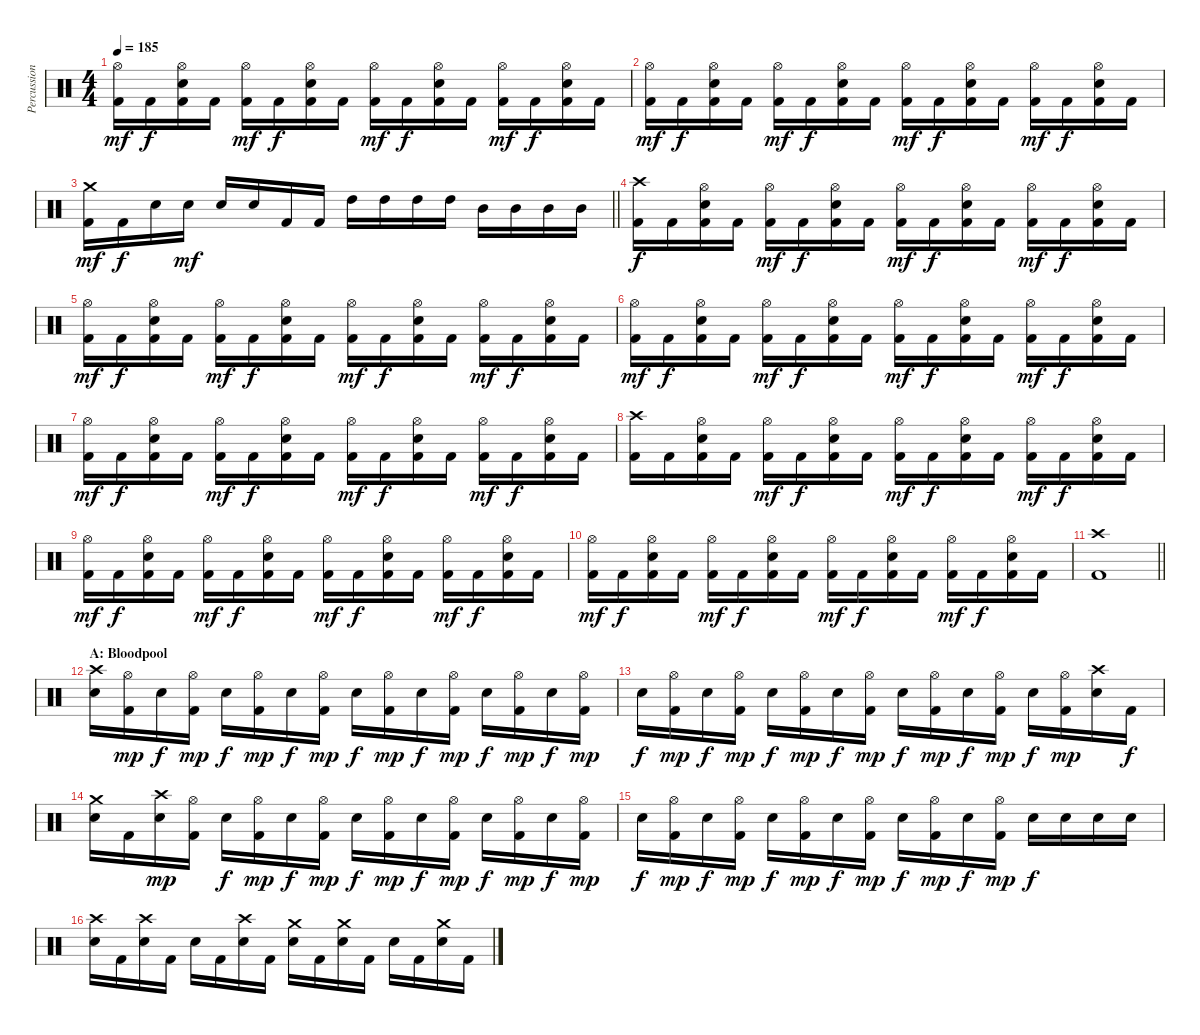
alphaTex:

\track ("Percussion" "Percussion") {instrument percussion}
\staff {score}
\articulation defaults
\ts (4 4)
\tempo 185
\clef neutral
\ks c
("Hi-Hat (open)" "Kick (hit) 2").16{dy mf} "Kick (hit) 2".16{dy f} ("Hi-Hat (open)" "Snare (hit) 2" "Kick (hit) 2").16 "Kick (hit) 2".16 ("Hi-Hat (open)" "Kick (hit) 2").16{dy mf} "Kick (hit) 2".16{dy f} ("Hi-Hat (open)" "Snare (hit) 2" "Kick (hit) 2").16 "Kick (hit) 2".16 ("Hi-Hat (open)" "Kick (hit) 2").16{dy mf} "Kick (hit) 2".16{dy f} ("Hi-Hat (open)" "Snare (hit) 2" "Kick (hit) 2").16 "Kick (hit) 2".16 ("Hi-Hat (open)" "Kick (hit) 2").16{dy mf} "Kick (hit) 2".16{dy f} ("Hi-Hat (open)" "Snare (hit) 2" "Kick (hit) 2").16 "Kick (hit) 2".16 |
("Hi-Hat (open)" "Kick (hit) 2").16{dy mf} "Kick (hit) 2".16{dy f} ("Hi-Hat (open)" "Snare (hit) 2" "Kick (hit) 2").16 "Kick (hit) 2".16 ("Hi-Hat (open)" "Kick (hit) 2").16{dy mf} "Kick (hit) 2".16{dy f} ("Hi-Hat (open)" "Snare (hit) 2" "Kick (hit) 2").16 "Kick (hit) 2".16 ("Hi-Hat (open)" "Kick (hit) 2").16{dy mf} "Kick (hit) 2".16{dy f} ("Hi-Hat (open)" "Snare (hit) 2" "Kick (hit) 2").16 "Kick (hit) 2".16 ("Hi-Hat (open)" "Kick (hit) 2").16{dy mf} "Kick (hit) 2".16{dy f} ("Hi-Hat (open)" "Snare (hit) 2" "Kick (hit) 2").16 "Kick (hit) 2".16 |
\barLineRight lightlight
("Crash medium (hit)" "Kick (hit) 2").16{dy mf} "Kick (hit) 2".16{dy f} "Snare (hit) 2".16 "Snare (hit) 2".16{dy mf} "Snare (hit) 2".16 "Snare (hit) 2".16 "Kick (hit) 2".16 "Kick (hit) 2".16 "High Tom (hit)".16 "High Tom (hit)".16 "High Tom (hit)".16 "High Tom (hit)".16 "Mid Tom (hit)".16 "Mid Tom (hit)".16 "Mid Tom (hit)".16 "Mid Tom (hit)".16 |
\section ("" " ")
("Crash high (hit)" "Kick (hit) 2").16{dy f} "Kick (hit) 2".16 ("Hi-Hat (open)" "Snare (hit) 2" "Kick (hit) 2").16 "Kick (hit) 2".16 ("Hi-Hat (open)" "Kick (hit) 2").16{dy mf} "Kick (hit) 2".16{dy f} ("Hi-Hat (open)" "Snare (hit) 2" "Kick (hit) 2").16 "Kick (hit) 2".16 ("Hi-Hat (open)" "Kick (hit) 2").16{dy mf} "Kick (hit) 2".16{dy f} ("Hi-Hat (open)" "Snare (hit) 2" "Kick (hit) 2").16 "Kick (hit) 2".16 ("Hi-Hat (open)" "Kick (hit) 2").16{dy mf} "Kick (hit) 2".16{dy f} ("Hi-Hat (open)" "Snare (hit) 2" "Kick (hit) 2").16 "Kick (hit) 2".16 |
("Hi-Hat (open)" "Kick (hit) 2").16{dy mf} "Kick (hit) 2".16{dy f} ("Hi-Hat (open)" "Snare (hit) 2" "Kick (hit) 2").16 "Kick (hit) 2".16 ("Hi-Hat (open)" "Kick (hit) 2").16{dy mf} "Kick (hit) 2".16{dy f} ("Hi-Hat (open)" "Snare (hit) 2" "Kick (hit) 2").16 "Kick (hit) 2".16 ("Hi-Hat (open)" "Kick (hit) 2").16{dy mf} "Kick (hit) 2".16{dy f} ("Hi-Hat (open)" "Snare (hit) 2" "Kick (hit) 2").16 "Kick (hit) 2".16 ("Hi-Hat (open)" "Kick (hit) 2").16{dy mf} "Kick (hit) 2".16{dy f} ("Hi-Hat (open)" "Snare (hit) 2" "Kick (hit) 2").16 "Kick (hit) 2".16 |
("Hi-Hat (open)" "Kick (hit) 2").16{dy mf} "Kick (hit) 2".16{dy f} ("Hi-Hat (open)" "Snare (hit) 2" "Kick (hit) 2").16 "Kick (hit) 2".16 ("Hi-Hat (open)" "Kick (hit) 2").16{dy mf} "Kick (hit) 2".16{dy f} ("Hi-Hat (open)" "Snare (hit) 2" "Kick (hit) 2").16 "Kick (hit) 2".16 ("Hi-Hat (open)" "Kick (hit) 2").16{dy mf} "Kick (hit) 2".16{dy f} ("Hi-Hat (open)" "Snare (hit) 2" "Kick (hit) 2").16 "Kick (hit) 2".16 ("Hi-Hat (open)" "Kick (hit) 2").16{dy mf} "Kick (hit) 2".16{dy f} ("Hi-Hat (open)" "Snare (hit) 2" "Kick (hit) 2").16 "Kick (hit) 2".16 |
("Hi-Hat (open)" "Kick (hit) 2").16{dy mf} "Kick (hit) 2".16{dy f} ("Hi-Hat (open)" "Snare (hit) 2" "Kick (hit) 2").16 "Kick (hit) 2".16 ("Hi-Hat (open)" "Kick (hit) 2").16{dy mf} "Kick (hit) 2".16{dy f} ("Hi-Hat (open)" "Snare (hit) 2" "Kick (hit) 2").16 "Kick (hit) 2".16 ("Hi-Hat (open)" "Kick (hit) 2").16{dy mf} "Kick (hit) 2".16{dy f} ("Hi-Hat (open)" "Snare (hit) 2" "Kick (hit) 2").16 "Kick (hit) 2".16 ("Hi-Hat (open)" "Kick (hit) 2").16{dy mf} "Kick (hit) 2".16{dy f} ("Hi-Hat (open)" "Snare (hit) 2" "Kick (hit) 2").16 "Kick (hit) 2".16 |
("Crash high (hit)" "Kick (hit) 2").16 "Kick (hit) 2".16 ("Hi-Hat (open)" "Snare (hit) 2" "Kick (hit) 2").16 "Kick (hit) 2".16 ("Hi-Hat (open)" "Kick (hit) 2").16{dy mf} "Kick (hit) 2".16{dy f} ("Hi-Hat (open)" "Snare (hit) 2" "Kick (hit) 2").16 "Kick (hit) 2".16 ("Hi-Hat (open)" "Kick (hit) 2").16{dy mf} "Kick (hit) 2".16{dy f} ("Hi-Hat (open)" "Snare (hit) 2" "Kick (hit) 2").16 "Kick (hit) 2".16 ("Hi-Hat (open)" "Kick (hit) 2").16{dy mf} "Kick (hit) 2".16{dy f} ("Hi-Hat (open)" "Snare (hit) 2" "Kick (hit) 2").16 "Kick (hit) 2".16 |
("Hi-Hat (open)" "Kick (hit) 2").16{dy mf} "Kick (hit) 2".16{dy f} ("Hi-Hat (open)" "Snare (hit) 2" "Kick (hit) 2").16 "Kick (hit) 2".16 ("Hi-Hat (open)" "Kick (hit) 2").16{dy mf} "Kick (hit) 2".16{dy f} ("Hi-Hat (open)" "Snare (hit) 2" "Kick (hit) 2").16 "Kick (hit) 2".16 ("Hi-Hat (open)" "Kick (hit) 2").16{dy mf} "Kick (hit) 2".16{dy f} ("Hi-Hat (open)" "Snare (hit) 2" "Kick (hit) 2").16 "Kick (hit) 2".16 ("Hi-Hat (open)" "Kick (hit) 2").16{dy mf} "Kick (hit) 2".16{dy f} ("Hi-Hat (open)" "Snare (hit) 2" "Kick (hit) 2").16 "Kick (hit) 2".16 |
("Hi-Hat (open)" "Kick (hit) 2").16{dy mf} "Kick (hit) 2".16{dy f} ("Hi-Hat (open)" "Snare (hit) 2" "Kick (hit) 2").16 "Kick (hit) 2".16 ("Hi-Hat (open)" "Kick (hit) 2").16{dy mf} "Kick (hit) 2".16{dy f} ("Hi-Hat (open)" "Snare (hit) 2" "Kick (hit) 2").16 "Kick (hit) 2".16 ("Hi-Hat (open)" "Kick (hit) 2").16{dy mf} "Kick (hit) 2".16{dy f} ("Hi-Hat (open)" "Snare (hit) 2" "Kick (hit) 2").16 "Kick (hit) 2".16 ("Hi-Hat (open)" "Kick (hit) 2").16{dy mf} "Kick (hit) 2".16{dy f} ("Hi-Hat (open)" "Snare (hit) 2" "Kick (hit) 2").16 "Kick (hit) 2".16 |
\barLineRight lightlight
("Crash high (hit)" "Kick (hit) 2").1 |
\section ("" "A: Bloodpool")
("Crash high (hit)" "Snare (hit) 2").16 ("Hi-Hat (open)" "Kick (hit) 2").16{dy mp} "Snare (hit) 2".16{dy f} ("Hi-Hat (open)" "Kick (hit) 2").16{dy mp} "Snare (hit) 2".16{dy f} ("Hi-Hat (open)" "Kick (hit) 2").16{dy mp} "Snare (hit) 2".16{dy f} ("Hi-Hat (open)" "Kick (hit) 2").16{dy mp} "Snare (hit) 2".16{dy f} ("Hi-Hat (open)" "Kick (hit) 2").16{dy mp} "Snare (hit) 2".16{dy f} ("Hi-Hat (open)" "Kick (hit) 2").16{dy mp} "Snare (hit) 2".16{dy f} ("Hi-Hat (open)" "Kick (hit) 2").16{dy mp} "Snare (hit) 2".16{dy f} ("Hi-Hat (open)" "Kick (hit) 2").16{dy mp} |
"Snare (hit) 2".16{dy f} ("Hi-Hat (open)" "Kick (hit) 2").16{dy mp} "Snare (hit) 2".16{dy f} ("Hi-Hat (open)" "Kick (hit) 2").16{dy mp} "Snare (hit) 2".16{dy f} ("Hi-Hat (open)" "Kick (hit) 2").16{dy mp} "Snare (hit) 2".16{dy f} ("Hi-Hat (open)" "Kick (hit) 2").16{dy mp} "Snare (hit) 2".16{dy f} ("Hi-Hat (open)" "Kick (hit) 2").16{dy mp} "Snare (hit) 2".16{dy f} ("Hi-Hat (open)" "Kick (hit) 2").16{dy mp} "Snare (hit) 2".16{dy f} ("Hi-Hat (open)" "Kick (hit) 2").16{dy mp} ("Crash high (hit)" "Snare (hit) 2").16 "Kick (hit) 2".16{dy f} |
("Crash medium (hit)" "Snare (hit) 2").16 "Kick (hit) 2".16 ("Crash high (hit)" "Snare (hit) 2").16{dy mp} ("Hi-Hat (open)" "Kick (hit) 2").16 "Snare (hit) 2".16{dy f} ("Hi-Hat (open)" "Kick (hit) 2").16{dy mp} "Snare (hit) 2".16{dy f} ("Hi-Hat (open)" "Kick (hit) 2").16{dy mp} "Snare (hit) 2".16{dy f} ("Hi-Hat (open)" "Kick (hit) 2").16{dy mp} "Snare (hit) 2".16{dy f} ("Hi-Hat (open)" "Kick (hit) 2").16{dy mp} "Snare (hit) 2".16{dy f} ("Hi-Hat (open)" "Kick (hit) 2").16{dy mp} "Snare (hit) 2".16{dy f} ("Hi-Hat (open)" "Kick (hit) 2").16{dy mp} |
"Snare (hit) 2".16{dy f} ("Hi-Hat (open)" "Kick (hit) 2").16{dy mp} "Snare (hit) 2".16{dy f} ("Hi-Hat (open)" "Kick (hit) 2").16{dy mp} "Snare (hit) 2".16{dy f} ("Hi-Hat (open)" "Kick (hit) 2").16{dy mp} "Snare (hit) 2".16{dy f} ("Hi-Hat (open)" "Kick (hit) 2").16{dy mp} "Snare (hit) 2".16{dy f} ("Hi-Hat (open)" "Kick (hit) 2").16{dy mp} "Snare (hit) 2".16{dy f} ("Hi-Hat (open)" "Kick (hit) 2").16{dy mp} "Snare (hit) 2".16{dy f} "Snare (hit) 2".16 "Snare (hit) 2".16 "Snare (hit) 2".16 |
("Crash high (hit)" "Snare (hit) 2").16 "Kick (hit) 2".16 ("Crash high (hit)" "Snare (hit) 2").16 "Kick (hit) 2".16 "Snare (hit) 2".16 "Kick (hit) 2".16 ("Crash high (hit)" "Snare (hit) 2").16 "Kick (hit) 2".16 ("Crash medium (hit)" "Snare (hit) 2").16 "Kick (hit) 2".16 ("Crash medium (hit)" "Snare (hit) 2").16 "Kick (hit) 2".16 "Snare (hit) 2".16 "Kick (hit) 2".16 ("Crash medium (hit)" "Snare (hit) 2").16 "Kick (hit) 2".16
